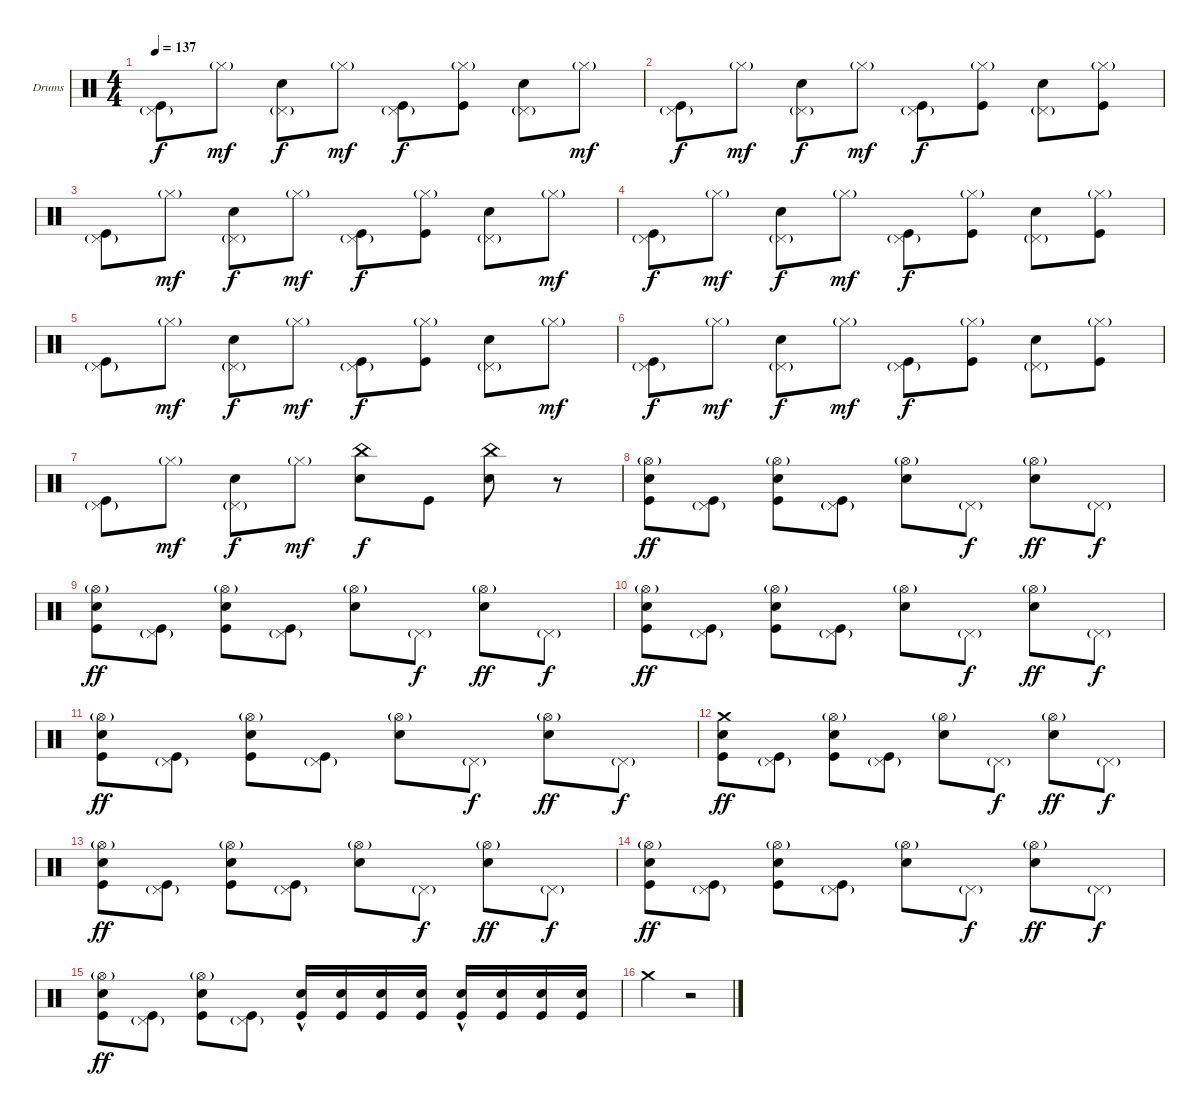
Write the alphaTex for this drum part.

\bracketExtendMode groupsimilarinstruments
\firstSystemTrackNameOrientation horizontal
\otherSystemsTrackNameOrientation horizontal
\track ("Drumkit (Christoph)" "Drums") {instrument percussion}
\staff {score}
\articulation defaults
\ts (4 4)
\tempo 137
\clef neutral
\ks c
("Pedal Hi-Hat (hit)"{g} "Kick (hit)").8{dy f} "Hi-Hat (closed)"{g}.8{dy mf} ("Pedal Hi-Hat (hit)"{g} "Snare (hit) 2").8{dy f} "Hi-Hat (closed)"{g}.8{dy mf} ("Pedal Hi-Hat (hit)"{g} "Kick (hit)").8{dy f} ("Hi-Hat (closed)"{g} "Kick (hit)").8 ("Pedal Hi-Hat (hit)"{g} "Snare (hit) 2").8 "Hi-Hat (closed)"{g}.8{dy mf} |
("Pedal Hi-Hat (hit)"{g} "Kick (hit)").8{dy f} "Hi-Hat (closed)"{g}.8{dy mf} ("Pedal Hi-Hat (hit)"{g} "Snare (hit) 2").8{dy f} "Hi-Hat (closed)"{g}.8{dy mf} ("Pedal Hi-Hat (hit)"{g} "Kick (hit)").8{dy f} ("Hi-Hat (closed)"{g} "Kick (hit)").8 ("Pedal Hi-Hat (hit)"{g} "Snare (hit) 2").8 ("Hi-Hat (closed)"{g} "Kick (hit)").8 |
("Pedal Hi-Hat (hit)"{g} "Kick (hit)").8 "Hi-Hat (closed)"{g}.8{dy mf} ("Pedal Hi-Hat (hit)"{g} "Snare (hit) 2").8{dy f} "Hi-Hat (closed)"{g}.8{dy mf} ("Pedal Hi-Hat (hit)"{g} "Kick (hit)").8{dy f} ("Hi-Hat (closed)"{g} "Kick (hit)").8 ("Pedal Hi-Hat (hit)"{g} "Snare (hit) 2").8 "Hi-Hat (closed)"{g}.8{dy mf} |
("Pedal Hi-Hat (hit)"{g} "Kick (hit)").8{dy f} "Hi-Hat (closed)"{g}.8{dy mf} ("Pedal Hi-Hat (hit)"{g} "Snare (hit) 2").8{dy f} "Hi-Hat (closed)"{g}.8{dy mf} ("Pedal Hi-Hat (hit)"{g} "Kick (hit)").8{dy f} ("Hi-Hat (closed)"{g} "Kick (hit)").8 ("Pedal Hi-Hat (hit)"{g} "Snare (hit) 2").8 ("Hi-Hat (closed)"{g} "Kick (hit)").8 |
("Pedal Hi-Hat (hit)"{g} "Kick (hit)").8 "Hi-Hat (closed)"{g}.8{dy mf} ("Pedal Hi-Hat (hit)"{g} "Snare (hit) 2").8{dy f} "Hi-Hat (closed)"{g}.8{dy mf} ("Pedal Hi-Hat (hit)"{g} "Kick (hit)").8{dy f} ("Hi-Hat (closed)"{g} "Kick (hit)").8 ("Pedal Hi-Hat (hit)"{g} "Snare (hit) 2").8 "Hi-Hat (closed)"{g}.8{dy mf} |
("Pedal Hi-Hat (hit)"{g} "Kick (hit)").8{dy f} "Hi-Hat (closed)"{g}.8{dy mf} ("Pedal Hi-Hat (hit)"{g} "Snare (hit) 2").8{dy f} "Hi-Hat (closed)"{g}.8{dy mf} ("Pedal Hi-Hat (hit)"{g} "Kick (hit)").8{dy f} ("Hi-Hat (closed)"{g} "Kick (hit)").8 ("Pedal Hi-Hat (hit)"{g} "Snare (hit) 2").8 ("Hi-Hat (closed)"{g} "Kick (hit)").8 |
("Pedal Hi-Hat (hit)"{g} "Kick (hit)").8 "Hi-Hat (closed)"{g}.8{dy mf} ("Pedal Hi-Hat (hit)"{g} "Snare (hit) 2").8{dy f} "Hi-Hat (closed)"{g}.8{dy mf} ("China (hit)" "Snare (hit) 2").8{dy f} "Kick (hit)".8 ("China (hit)" "Snare (hit) 2").8 r.8 |
("Hi-Hat (open)"{g} "Snare (hit) 2" "Kick (hit)").8{dy ff} ("Pedal Hi-Hat (hit)"{g} "Kick (hit)").8 ("Hi-Hat (open)"{g} "Snare (hit) 2" "Kick (hit)").8 ("Pedal Hi-Hat (hit)"{g} "Kick (hit)").8 ("Hi-Hat (open)"{g} "Snare (hit) 2").8 "Pedal Hi-Hat (hit)"{g}.8{dy f} ("Hi-Hat (open)"{g} "Snare (hit) 2").8{dy ff} "Pedal Hi-Hat (hit)"{g}.8{dy f} |
("Hi-Hat (open)"{g} "Snare (hit) 2" "Kick (hit)").8{dy ff} ("Pedal Hi-Hat (hit)"{g} "Kick (hit)").8 ("Hi-Hat (open)"{g} "Snare (hit) 2" "Kick (hit)").8 ("Pedal Hi-Hat (hit)"{g} "Kick (hit)").8 ("Hi-Hat (open)"{g} "Snare (hit) 2").8 "Pedal Hi-Hat (hit)"{g}.8{dy f} ("Hi-Hat (open)"{g} "Snare (hit) 2").8{dy ff} "Pedal Hi-Hat (hit)"{g}.8{dy f} |
("Hi-Hat (open)"{g} "Snare (hit) 2" "Kick (hit)").8{dy ff} ("Pedal Hi-Hat (hit)"{g} "Kick (hit)").8 ("Hi-Hat (open)"{g} "Snare (hit) 2" "Kick (hit)").8 ("Pedal Hi-Hat (hit)"{g} "Kick (hit)").8 ("Hi-Hat (open)"{g} "Snare (hit) 2").8 "Pedal Hi-Hat (hit)"{g}.8{dy f} ("Hi-Hat (open)"{g} "Snare (hit) 2").8{dy ff} "Pedal Hi-Hat (hit)"{g}.8{dy f} |
("Hi-Hat (open)"{g} "Snare (hit) 2" "Kick (hit)").8{dy ff} ("Pedal Hi-Hat (hit)"{g} "Kick (hit)").8 ("Hi-Hat (open)"{g} "Snare (hit) 2" "Kick (hit)").8 ("Pedal Hi-Hat (hit)"{g} "Kick (hit)").8 ("Hi-Hat (open)"{g} "Snare (hit) 2").8 "Pedal Hi-Hat (hit)"{g}.8{dy f} ("Hi-Hat (open)"{g} "Snare (hit) 2").8{dy ff} "Pedal Hi-Hat (hit)"{g}.8{dy f} |
("Crash medium (hit)" "Snare (hit) 2" "Kick (hit)").8{dy ff} ("Pedal Hi-Hat (hit)"{g} "Kick (hit)").8 ("Hi-Hat (open)"{g} "Snare (hit) 2" "Kick (hit)").8 ("Pedal Hi-Hat (hit)"{g} "Kick (hit)").8 ("Hi-Hat (open)"{g} "Snare (hit) 2").8 "Pedal Hi-Hat (hit)"{g}.8{dy f} ("Hi-Hat (open)"{g} "Snare (hit) 2").8{dy ff} "Pedal Hi-Hat (hit)"{g}.8{dy f} |
("Hi-Hat (open)"{g} "Snare (hit) 2" "Kick (hit)").8{dy ff} ("Pedal Hi-Hat (hit)"{g} "Kick (hit)").8 ("Hi-Hat (open)"{g} "Snare (hit) 2" "Kick (hit)").8 ("Pedal Hi-Hat (hit)"{g} "Kick (hit)").8 ("Hi-Hat (open)"{g} "Snare (hit) 2").8 "Pedal Hi-Hat (hit)"{g}.8{dy f} ("Hi-Hat (open)"{g} "Snare (hit) 2").8{dy ff} "Pedal Hi-Hat (hit)"{g}.8{dy f} |
("Hi-Hat (open)"{g} "Snare (hit) 2" "Kick (hit)").8{dy ff} ("Pedal Hi-Hat (hit)"{g} "Kick (hit)").8 ("Hi-Hat (open)"{g} "Snare (hit) 2" "Kick (hit)").8 ("Pedal Hi-Hat (hit)"{g} "Kick (hit)").8 ("Hi-Hat (open)"{g} "Snare (hit) 2").8 "Pedal Hi-Hat (hit)"{g}.8{dy f} ("Hi-Hat (open)"{g} "Snare (hit) 2").8{dy ff} "Pedal Hi-Hat (hit)"{g}.8{dy f} |
("Hi-Hat (open)"{g} "Snare (hit) 2" "Kick (hit)").8{dy ff} ("Pedal Hi-Hat (hit)"{g} "Kick (hit)").8 ("Hi-Hat (open)"{g} "Snare (hit) 2" "Kick (hit)").8 ("Pedal Hi-Hat (hit)"{g} "Kick (hit)").8 ("Snare (hit) 2"{hac} "Kick (hit)").16 ("Snare (hit) 2" "Kick (hit)").16 ("Snare (hit) 2" "Kick (hit)").16 ("Snare (hit) 2" "Kick (hit)").16 ("Snare (hit) 2"{hac} "Kick (hit)").16 ("Snare (hit) 2" "Kick (hit)").16 ("Snare (hit) 2" "Kick (hit)").16 ("Snare (hit) 2" "Kick (hit)").16 |
"Crash medium (hit)".2 r.2
